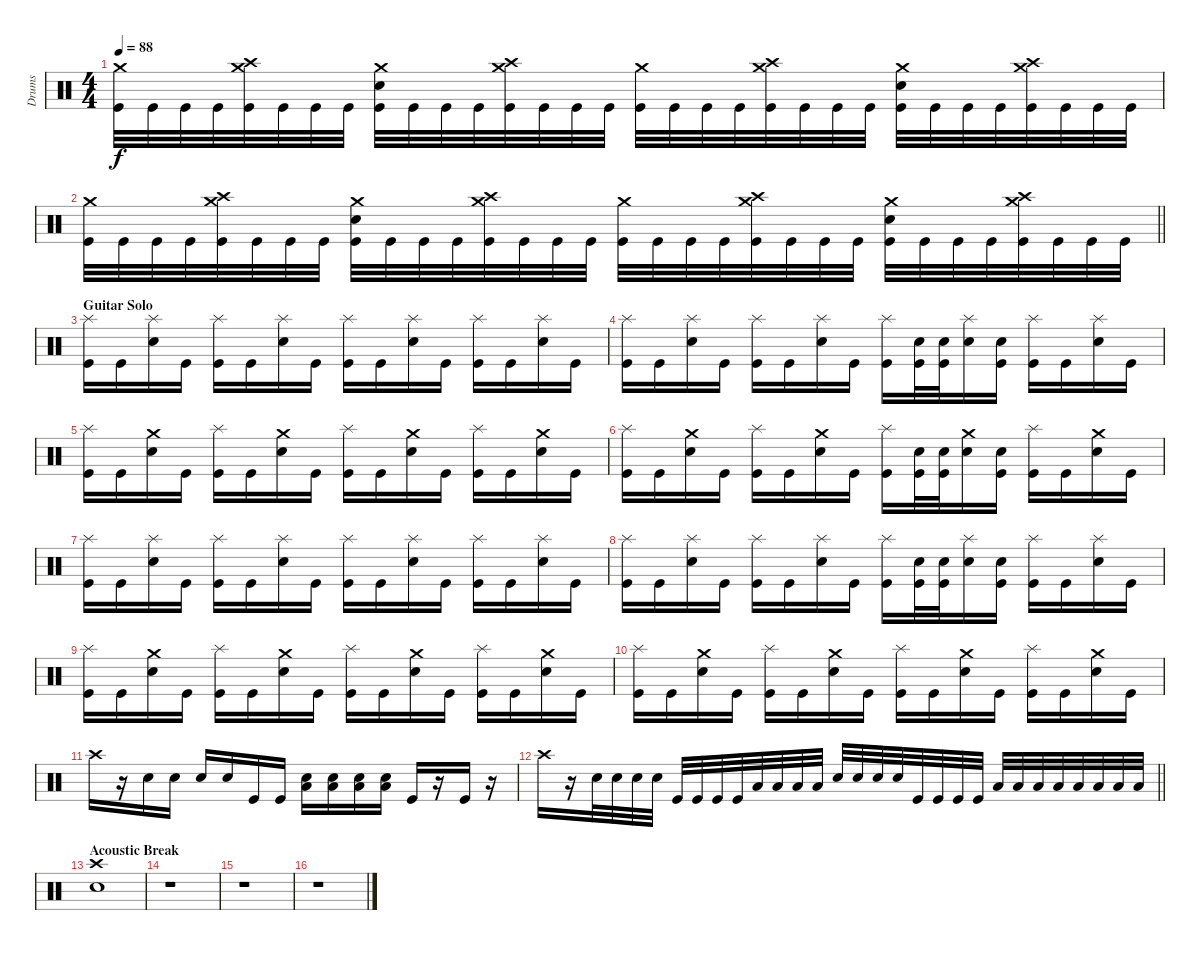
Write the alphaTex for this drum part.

\track ("Drums" "Drums") {instrument percussion}
\staff {score}
\articulation defaults
\ts (4 4)
\tempo 88
\clef neutral
\ks c
("Crash medium (hit)" "Kick (hit)").32{dy f} "Kick (hit)".32 "Kick (hit)".32 "Kick (hit)".32 ("Crash medium (hit)" "Crash high (hit)" "Kick (hit)").32 "Kick (hit)".32 "Kick (hit)".32 "Kick (hit)".32 ("Crash medium (hit)" "Electric Snare (hit)" "Kick (hit)").32 "Kick (hit)".32 "Kick (hit)".32 "Kick (hit)".32 ("Crash medium (hit)" "Crash high (hit)" "Kick (hit)").32 "Kick (hit)".32 "Kick (hit)".32 "Kick (hit)".32 ("Crash medium (hit)" "Kick (hit)").32 "Kick (hit)".32 "Kick (hit)".32 "Kick (hit)".32 ("Crash medium (hit)" "Crash high (hit)" "Kick (hit)").32 "Kick (hit)".32 "Kick (hit)".32 "Kick (hit)".32 ("Crash medium (hit)" "Electric Snare (hit)" "Kick (hit)").32 "Kick (hit)".32 "Kick (hit)".32 "Kick (hit)".32 ("Crash medium (hit)" "Crash high (hit)" "Kick (hit)").32 "Kick (hit)".32 "Kick (hit)".32 "Kick (hit)".32 |
\barLineRight lightlight
("Crash medium (hit)" "Kick (hit)").32 "Kick (hit)".32 "Kick (hit)".32 "Kick (hit)".32 ("Crash medium (hit)" "Crash high (hit)" "Kick (hit)").32 "Kick (hit)".32 "Kick (hit)".32 "Kick (hit)".32 ("Crash medium (hit)" "Electric Snare (hit)" "Kick (hit)").32 "Kick (hit)".32 "Kick (hit)".32 "Kick (hit)".32 ("Crash medium (hit)" "Crash high (hit)" "Kick (hit)").32 "Kick (hit)".32 "Kick (hit)".32 "Kick (hit)".32 ("Crash medium (hit)" "Kick (hit)").32 "Kick (hit)".32 "Kick (hit)".32 "Kick (hit)".32 ("Crash medium (hit)" "Crash high (hit)" "Kick (hit)").32 "Kick (hit)".32 "Kick (hit)".32 "Kick (hit)".32 ("Crash medium (hit)" "Electric Snare (hit)" "Kick (hit)").32 "Kick (hit)".32 "Kick (hit)".32 "Kick (hit)".32 ("Crash medium (hit)" "Crash high (hit)" "Kick (hit)").32 "Kick (hit)".32 "Kick (hit)".32 "Kick (hit)".32 |
\section ("" "Guitar Solo")
("Splash (hit)" "Kick (hit)").16 "Kick (hit)".16 ("Splash (hit)" "Electric Snare (hit)").16 "Kick (hit)".16 ("Splash (hit)" "Kick (hit)").16 "Kick (hit)".16 ("Splash (hit)" "Electric Snare (hit)").16 "Kick (hit)".16 ("Splash (hit)" "Kick (hit)").16 "Kick (hit)".16 ("Splash (hit)" "Electric Snare (hit)").16 "Kick (hit)".16 ("Splash (hit)" "Kick (hit)").16 "Kick (hit)".16 ("Splash (hit)" "Electric Snare (hit)").16 "Kick (hit)".16 |
("Splash (hit)" "Kick (hit)").16 "Kick (hit)".16 ("Splash (hit)" "Electric Snare (hit)").16 "Kick (hit)".16 ("Splash (hit)" "Kick (hit)").16 "Kick (hit)".16 ("Splash (hit)" "Electric Snare (hit)").16 "Kick (hit)".16 ("Splash (hit)" "Kick (hit)").16 ("Electric Snare (hit)" "Kick (hit)").32 ("Electric Snare (hit)" "Kick (hit)").32 ("Splash (hit)" "Electric Snare (hit)").16 ("Electric Snare (hit)" "Kick (hit)").16 ("Splash (hit)" "Kick (hit)").16 "Kick (hit)".16 ("Splash (hit)" "Electric Snare (hit)").16 "Kick (hit)".16 |
("Splash (hit)" "Kick (hit)").16 "Kick (hit)".16 ("Crash medium (hit)" "Electric Snare (hit)").16 "Kick (hit)".16 ("Splash (hit)" "Kick (hit)").16 "Kick (hit)".16 ("Crash medium (hit)" "Electric Snare (hit)").16 "Kick (hit)".16 ("Splash (hit)" "Kick (hit)").16 "Kick (hit)".16 ("Crash medium (hit)" "Electric Snare (hit)").16 "Kick (hit)".16 ("Splash (hit)" "Kick (hit)").16 "Kick (hit)".16 ("Crash medium (hit)" "Electric Snare (hit)").16 "Kick (hit)".16 |
("Splash (hit)" "Kick (hit)").16 "Kick (hit)".16 ("Crash medium (hit)" "Electric Snare (hit)").16 "Kick (hit)".16 ("Splash (hit)" "Kick (hit)").16 "Kick (hit)".16 ("Crash medium (hit)" "Electric Snare (hit)").16 "Kick (hit)".16 ("Splash (hit)" "Kick (hit)").16 ("Electric Snare (hit)" "Kick (hit)").32 ("Electric Snare (hit)" "Kick (hit)").32 ("Crash medium (hit)" "Electric Snare (hit)").16 ("Electric Snare (hit)" "Kick (hit)").16 ("Splash (hit)" "Kick (hit)").16 "Kick (hit)".16 ("Crash medium (hit)" "Electric Snare (hit)").16 "Kick (hit)".16 |
("Splash (hit)" "Kick (hit)").16 "Kick (hit)".16 ("Splash (hit)" "Electric Snare (hit)").16 "Kick (hit)".16 ("Splash (hit)" "Kick (hit)").16 "Kick (hit)".16 ("Splash (hit)" "Electric Snare (hit)").16 "Kick (hit)".16 ("Splash (hit)" "Kick (hit)").16 "Kick (hit)".16 ("Splash (hit)" "Electric Snare (hit)").16 "Kick (hit)".16 ("Splash (hit)" "Kick (hit)").16 "Kick (hit)".16 ("Splash (hit)" "Electric Snare (hit)").16 "Kick (hit)".16 |
("Splash (hit)" "Kick (hit)").16 "Kick (hit)".16 ("Splash (hit)" "Electric Snare (hit)").16 "Kick (hit)".16 ("Splash (hit)" "Kick (hit)").16 "Kick (hit)".16 ("Splash (hit)" "Electric Snare (hit)").16 "Kick (hit)".16 ("Splash (hit)" "Kick (hit)").16 ("Electric Snare (hit)" "Kick (hit)").32 ("Electric Snare (hit)" "Kick (hit)").32 ("Splash (hit)" "Electric Snare (hit)").16 ("Electric Snare (hit)" "Kick (hit)").16 ("Splash (hit)" "Kick (hit)").16 "Kick (hit)".16 ("Splash (hit)" "Electric Snare (hit)").16 "Kick (hit)".16 |
("Splash (hit)" "Kick (hit)").16 "Kick (hit)".16 ("Crash medium (hit)" "Electric Snare (hit)").16 "Kick (hit)".16 ("Splash (hit)" "Kick (hit)").16 "Kick (hit)".16 ("Crash medium (hit)" "Electric Snare (hit)").16 "Kick (hit)".16 ("Splash (hit)" "Kick (hit)").16 "Kick (hit)".16 ("Crash medium (hit)" "Electric Snare (hit)").16 "Kick (hit)".16 ("Splash (hit)" "Kick (hit)").16 "Kick (hit)".16 ("Crash medium (hit)" "Electric Snare (hit)").16 "Kick (hit)".16 |
("Splash (hit)" "Kick (hit)").16 "Kick (hit)".16 ("Crash medium (hit)" "Electric Snare (hit)").16 "Kick (hit)".16 ("Splash (hit)" "Kick (hit)").16 "Kick (hit)".16 ("Crash medium (hit)" "Electric Snare (hit)").16 "Kick (hit)".16 ("Splash (hit)" "Kick (hit)").16 "Kick (hit)".16 ("Crash medium (hit)" "Electric Snare (hit)").16 "Kick (hit)".16 ("Splash (hit)" "Kick (hit)").16 "Kick (hit)".16 ("Crash medium (hit)" "Electric Snare (hit)").16 "Kick (hit)".16 |
"Crash high (hit)".16 r.16 "Electric Snare (hit)".16 "Electric Snare (hit)".16 "Electric Snare (hit)".16 "Electric Snare (hit)".16 "Kick (hit)".16 "Kick (hit)".16 ("Electric Snare (hit)" "Low Floor Tom (hit)").16 ("Electric Snare (hit)" "Low Floor Tom (hit)").16 ("Electric Snare (hit)" "Low Tom (hit)").16 ("Electric Snare (hit)" "Low Tom (hit)").16 "Kick (hit)".16 r.16 "Kick (hit)".16 r.16 |
\barLineRight lightlight "Crash high (hit)".16
r.16 "Electric Snare (hit)".32 "Electric Snare (hit)".32 "Electric Snare (hit)".32 "Electric Snare (hit)".32 "Kick (hit)".32 "Kick (hit)".32 "Kick (hit)".32 "Kick (hit)".32 "Low Floor Tom (hit)".32 "Low Floor Tom (hit)".32 "Low Floor Tom (hit)".32 "Low Floor Tom (hit)".32 "Electric Snare (hit)".32 "Electric Snare (hit)".32 "Electric Snare (hit)".32 "Electric Snare (hit)".32 "Kick (hit)".32 "Kick (hit)".32 "Kick (hit)".32 "Kick (hit)".32 "Low Floor Tom (hit)".32 "Low Floor Tom (hit)".32 "Low Floor Tom (hit)".32 "Low Floor Tom (hit)".32 "Low Floor Tom (hit)".32 "Low Floor Tom (hit)".32 "Low Floor Tom (hit)".32 "Low Floor Tom (hit)".32 |
\section ("" "Acoustic Break")
("Crash high (hit)" "Electric Snare (hit)").1 |
r.1 |
r.1 |
r.1
